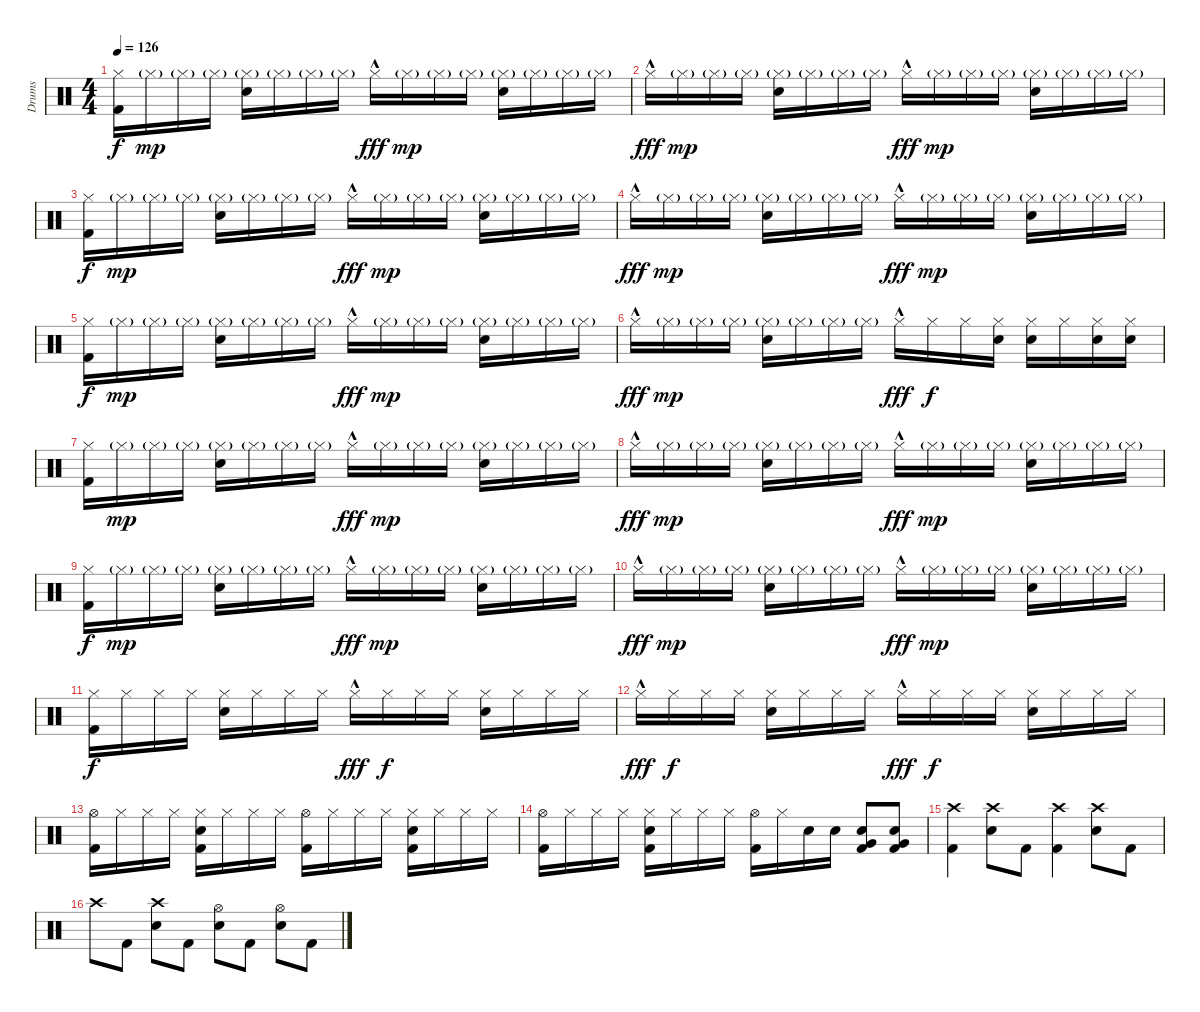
\track ("Drums" "Drums") {instrument percussion}
\staff {score}
\articulation defaults
\ts (4 4)
\tempo 126
\clef neutral
\ks c
("Hi-Hat (closed)" "Kick (hit) 2").16{dy f} "Hi-Hat (closed)"{g}.16{dy mp} "Hi-Hat (closed)"{g}.16 "Hi-Hat (closed)"{g}.16 ("Hi-Hat (closed)"{g} "Electric Snare (hit)").16 "Hi-Hat (closed)"{g}.16 "Hi-Hat (closed)"{g}.16 "Hi-Hat (closed)"{g}.16 "Hi-Hat (closed)"{hac}.16{dy fff} "Hi-Hat (closed)"{g}.16{dy mp} "Hi-Hat (closed)"{g}.16 "Hi-Hat (closed)"{g}.16 ("Hi-Hat (closed)"{g} "Electric Snare (hit)").16 "Hi-Hat (closed)"{g}.16 "Hi-Hat (closed)"{g}.16 "Hi-Hat (closed)"{g}.16 |
"Hi-Hat (closed)"{hac}.16{dy fff} "Hi-Hat (closed)"{g}.16{dy mp} "Hi-Hat (closed)"{g}.16 "Hi-Hat (closed)"{g}.16 ("Hi-Hat (closed)"{g} "Electric Snare (hit)").16 "Hi-Hat (closed)"{g}.16 "Hi-Hat (closed)"{g}.16 "Hi-Hat (closed)"{g}.16 "Hi-Hat (closed)"{hac}.16{dy fff} "Hi-Hat (closed)"{g}.16{dy mp} "Hi-Hat (closed)"{g}.16 "Hi-Hat (closed)"{g}.16 ("Hi-Hat (closed)"{g} "Electric Snare (hit)").16 "Hi-Hat (closed)"{g}.16 "Hi-Hat (closed)"{g}.16 "Hi-Hat (closed)"{g}.16 |
("Hi-Hat (closed)" "Kick (hit) 2").16{dy f} "Hi-Hat (closed)"{g}.16{dy mp} "Hi-Hat (closed)"{g}.16 "Hi-Hat (closed)"{g}.16 ("Hi-Hat (closed)"{g} "Electric Snare (hit)").16 "Hi-Hat (closed)"{g}.16 "Hi-Hat (closed)"{g}.16 "Hi-Hat (closed)"{g}.16 "Hi-Hat (closed)"{hac}.16{dy fff} "Hi-Hat (closed)"{g}.16{dy mp} "Hi-Hat (closed)"{g}.16 "Hi-Hat (closed)"{g}.16 ("Hi-Hat (closed)"{g} "Electric Snare (hit)").16 "Hi-Hat (closed)"{g}.16 "Hi-Hat (closed)"{g}.16 "Hi-Hat (closed)"{g}.16 |
"Hi-Hat (closed)"{hac}.16{dy fff} "Hi-Hat (closed)"{g}.16{dy mp} "Hi-Hat (closed)"{g}.16 "Hi-Hat (closed)"{g}.16 ("Hi-Hat (closed)"{g} "Electric Snare (hit)").16 "Hi-Hat (closed)"{g}.16 "Hi-Hat (closed)"{g}.16 "Hi-Hat (closed)"{g}.16 "Hi-Hat (closed)"{hac}.16{dy fff} "Hi-Hat (closed)"{g}.16{dy mp} "Hi-Hat (closed)"{g}.16 "Hi-Hat (closed)"{g}.16 ("Hi-Hat (closed)"{g} "Electric Snare (hit)").16 "Hi-Hat (closed)"{g}.16 "Hi-Hat (closed)"{g}.16 "Hi-Hat (closed)"{g}.16 |
("Hi-Hat (closed)" "Kick (hit) 2").16{dy f} "Hi-Hat (closed)"{g}.16{dy mp} "Hi-Hat (closed)"{g}.16 "Hi-Hat (closed)"{g}.16 ("Hi-Hat (closed)"{g} "Electric Snare (hit)").16 "Hi-Hat (closed)"{g}.16 "Hi-Hat (closed)"{g}.16 "Hi-Hat (closed)"{g}.16 "Hi-Hat (closed)"{hac}.16{dy fff} "Hi-Hat (closed)"{g}.16{dy mp} "Hi-Hat (closed)"{g}.16 "Hi-Hat (closed)"{g}.16 ("Hi-Hat (closed)"{g} "Electric Snare (hit)").16 "Hi-Hat (closed)"{g}.16 "Hi-Hat (closed)"{g}.16 "Hi-Hat (closed)"{g}.16 |
"Hi-Hat (closed)"{hac}.16{dy fff} "Hi-Hat (closed)"{g}.16{dy mp} "Hi-Hat (closed)"{g}.16 "Hi-Hat (closed)"{g}.16 ("Hi-Hat (closed)"{g} "Electric Snare (hit)").16 "Hi-Hat (closed)"{g}.16 "Hi-Hat (closed)"{g}.16 "Hi-Hat (closed)"{g}.16 "Hi-Hat (closed)"{hac}.16{dy fff} "Hi-Hat (closed)".16{dy f} "Hi-Hat (closed)".16 ("Hi-Hat (closed)" "Electric Snare (hit)").16 ("Hi-Hat (closed)" "Electric Snare (hit)").16 "Hi-Hat (closed)".16 ("Hi-Hat (closed)" "Electric Snare (hit)").16 ("Hi-Hat (closed)" "Electric Snare (hit)").16 |
("Hi-Hat (closed)" "Kick (hit) 2").16 "Hi-Hat (closed)"{g}.16{dy mp} "Hi-Hat (closed)"{g}.16 "Hi-Hat (closed)"{g}.16 ("Hi-Hat (closed)"{g} "Electric Snare (hit)").16 "Hi-Hat (closed)"{g}.16 "Hi-Hat (closed)"{g}.16 "Hi-Hat (closed)"{g}.16 "Hi-Hat (closed)"{hac}.16{dy fff} "Hi-Hat (closed)"{g}.16{dy mp} "Hi-Hat (closed)"{g}.16 "Hi-Hat (closed)"{g}.16 ("Hi-Hat (closed)"{g} "Electric Snare (hit)").16 "Hi-Hat (closed)"{g}.16 "Hi-Hat (closed)"{g}.16 "Hi-Hat (closed)"{g}.16 |
"Hi-Hat (closed)"{hac}.16{dy fff} "Hi-Hat (closed)"{g}.16{dy mp} "Hi-Hat (closed)"{g}.16 "Hi-Hat (closed)"{g}.16 ("Hi-Hat (closed)"{g} "Electric Snare (hit)").16 "Hi-Hat (closed)"{g}.16 "Hi-Hat (closed)"{g}.16 "Hi-Hat (closed)"{g}.16 "Hi-Hat (closed)"{hac}.16{dy fff} "Hi-Hat (closed)"{g}.16{dy mp} "Hi-Hat (closed)"{g}.16 "Hi-Hat (closed)"{g}.16 ("Hi-Hat (closed)"{g} "Electric Snare (hit)").16 "Hi-Hat (closed)"{g}.16 "Hi-Hat (closed)"{g}.16 "Hi-Hat (closed)"{g}.16 |
("Hi-Hat (closed)" "Kick (hit) 2").16{dy f} "Hi-Hat (closed)"{g}.16{dy mp} "Hi-Hat (closed)"{g}.16 "Hi-Hat (closed)"{g}.16 ("Hi-Hat (closed)"{g} "Electric Snare (hit)").16 "Hi-Hat (closed)"{g}.16 "Hi-Hat (closed)"{g}.16 "Hi-Hat (closed)"{g}.16 "Hi-Hat (closed)"{hac}.16{dy fff} "Hi-Hat (closed)"{g}.16{dy mp} "Hi-Hat (closed)"{g}.16 "Hi-Hat (closed)"{g}.16 ("Hi-Hat (closed)"{g} "Electric Snare (hit)").16 "Hi-Hat (closed)"{g}.16 "Hi-Hat (closed)"{g}.16 "Hi-Hat (closed)"{g}.16 |
"Hi-Hat (closed)"{hac}.16{dy fff} "Hi-Hat (closed)"{g}.16{dy mp} "Hi-Hat (closed)"{g}.16 "Hi-Hat (closed)"{g}.16 ("Hi-Hat (closed)"{g} "Electric Snare (hit)").16 "Hi-Hat (closed)"{g}.16 "Hi-Hat (closed)"{g}.16 "Hi-Hat (closed)"{g}.16 "Hi-Hat (closed)"{hac}.16{dy fff} "Hi-Hat (closed)"{g}.16{dy mp} "Hi-Hat (closed)"{g}.16 "Hi-Hat (closed)"{g}.16 ("Hi-Hat (closed)"{g} "Electric Snare (hit)").16 "Hi-Hat (closed)"{g}.16 "Hi-Hat (closed)"{g}.16 "Hi-Hat (closed)"{g}.16 |
("Hi-Hat (closed)" "Kick (hit) 2").16{dy f} "Hi-Hat (closed)".16 "Hi-Hat (closed)".16 "Hi-Hat (closed)".16 ("Hi-Hat (closed)" "Electric Snare (hit)").16 "Hi-Hat (closed)".16 "Hi-Hat (closed)".16 "Hi-Hat (closed)".16 "Hi-Hat (closed)"{hac}.16{dy fff} "Hi-Hat (closed)".16{dy f} "Hi-Hat (closed)".16 "Hi-Hat (closed)".16 ("Hi-Hat (closed)" "Electric Snare (hit)").16 "Hi-Hat (closed)".16 "Hi-Hat (closed)".16 "Hi-Hat (closed)".16 |
"Hi-Hat (closed)"{hac}.16{dy fff} "Hi-Hat (closed)".16{dy f} "Hi-Hat (closed)".16 "Hi-Hat (closed)".16 ("Hi-Hat (closed)" "Electric Snare (hit)").16 "Hi-Hat (closed)".16 "Hi-Hat (closed)".16 "Hi-Hat (closed)".16 "Hi-Hat (closed)"{hac}.16{dy fff} "Hi-Hat (closed)".16{dy f} "Hi-Hat (closed)".16 "Hi-Hat (closed)".16 ("Hi-Hat (closed)" "Electric Snare (hit)").16 "Hi-Hat (closed)".16 "Hi-Hat (closed)".16 "Hi-Hat (closed)".16 |
("Hi-Hat (open)" "Kick (hit) 2").16 "Hi-Hat (closed)".16 "Hi-Hat (closed)".16 "Hi-Hat (closed)".16 ("Hi-Hat (closed)" "Electric Snare (hit)" "Kick (hit) 2").16 "Hi-Hat (closed)".16 "Hi-Hat (closed)".16 "Hi-Hat (closed)".16 ("Hi-Hat (open)" "Kick (hit) 2").16 "Hi-Hat (closed)".16 "Hi-Hat (closed)".16 "Hi-Hat (closed)".16 ("Hi-Hat (closed)" "Electric Snare (hit)" "Kick (hit) 2").16 "Hi-Hat (closed)".16 "Hi-Hat (closed)".16 "Hi-Hat (closed)".16 |
("Hi-Hat (open)" "Kick (hit) 2").16 "Hi-Hat (closed)".16 "Hi-Hat (closed)".16 "Hi-Hat (closed)".16 ("Hi-Hat (closed)" "Electric Snare (hit)" "Kick (hit) 2").16 "Hi-Hat (closed)".16 "Hi-Hat (closed)".16 "Hi-Hat (closed)".16 ("Hi-Hat (open)" "Kick (hit) 2").16 "Hi-Hat (closed)".16 "Electric Snare (hit)".16 "Electric Snare (hit)".16 ("Very Low Tom (hit)" "Electric Snare (hit)" "Kick (hit) 2").8 ("Very Low Tom (hit)" "Electric Snare (hit)" "Kick (hit) 2").8 |
("Crash high (hit)" "Kick (hit) 2").4 ("Crash high (hit)" "Electric Snare (hit)").8 "Kick (hit) 2".8 ("Crash high (hit)" "Kick (hit) 2").4 ("Crash high (hit)" "Electric Snare (hit)").8 "Kick (hit) 2".8 |
"Crash high (hit)".8 "Kick (hit) 2".8 ("Crash high (hit)" "Electric Snare (hit)").8 "Kick (hit) 2".8 ("Hi-Hat (open)" "Electric Snare (hit)").8 "Kick (hit) 2".8 ("Hi-Hat (open)" "Electric Snare (hit)").8 "Kick (hit) 2".8
